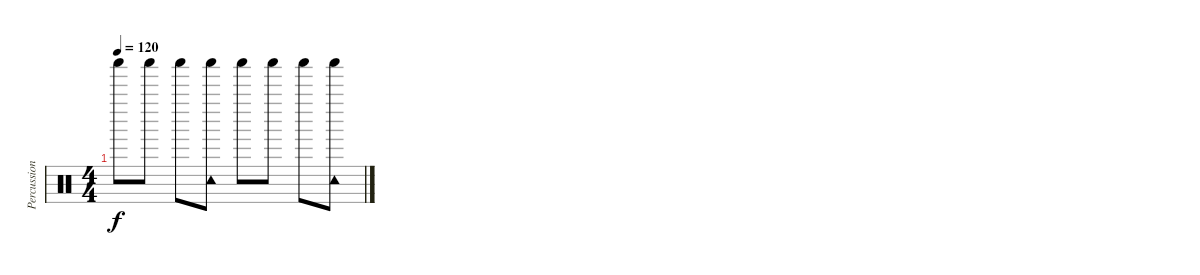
\track ("Percussioni" "Percussion") {instrument percussion}
\staff {score}
\articulation defaults
\ts (4 4)
\tempo 120
\clef neutral
\ks c "Shaker (hit)".8{dy f} "Shaker (hit)".8 "Shaker (hit)".8
("Shaker (hit)" "Tambourine (hit)").8 "Shaker (hit)".8 "Shaker (hit)".8 "Shaker (hit)".8 ("Shaker (hit)" "Tambourine (hit)").8
